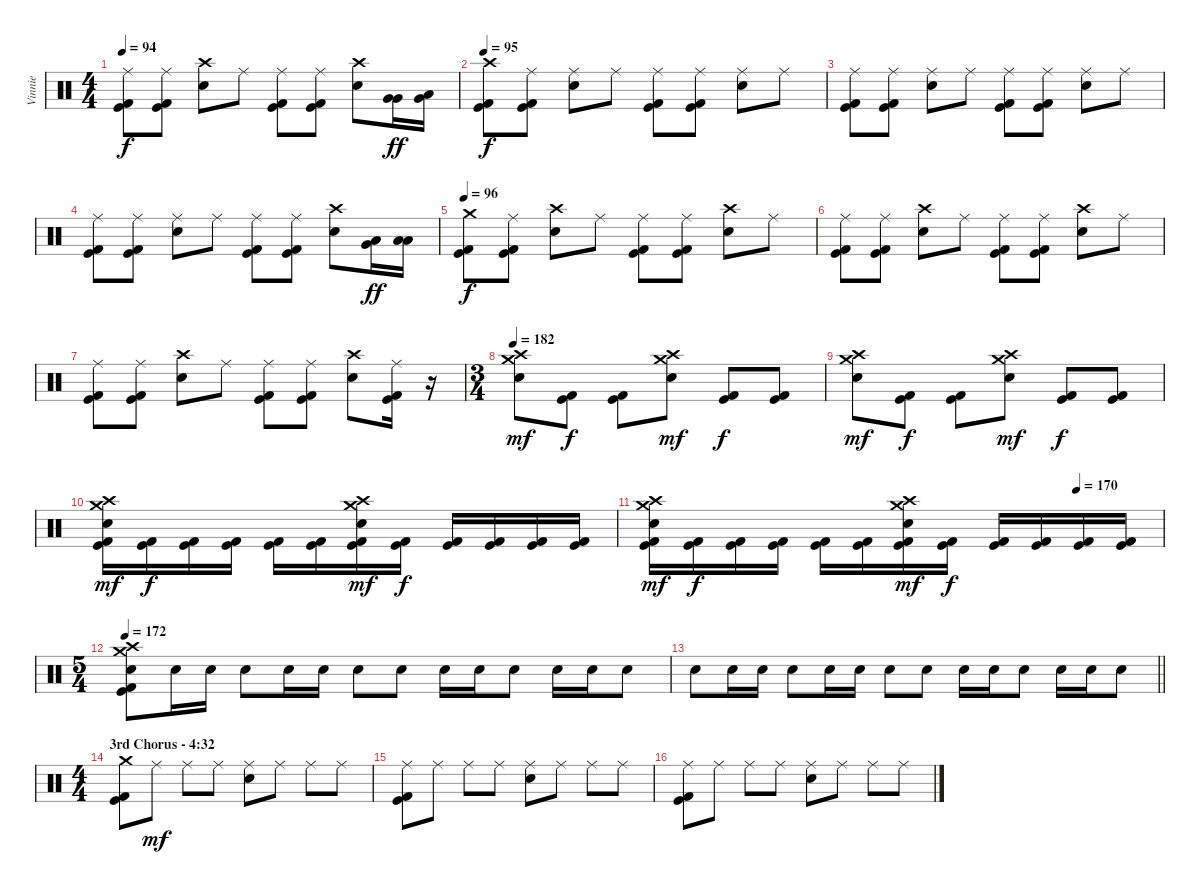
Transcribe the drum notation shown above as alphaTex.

\track ("Vinnie" "Vinnie") {instrument percussion}
\staff {score}
\articulation defaults
\ts (4 4)
\tempo 94
\clef neutral
\ks c
("Ride (middle)" "Kick (hit)" "Kick (hit) 2").8{dy f} ("Ride (middle)" "Kick (hit)" "Kick (hit) 2").8 ("Crash high (hit)" "Electric Snare (hit)").8 "Ride (middle)".8 ("Ride (middle)" "Kick (hit)" "Kick (hit) 2").8 ("Ride (middle)" "Kick (hit)" "Kick (hit) 2").8 ("Crash high (hit)" "Electric Snare (hit)").8 ("Very Low Tom (hit)" "Very Low Tom (hit)").16{dy ff} ("Low Tom (hit)" "Very Low Tom (hit)").16 |
\tempo 95
("Crash high (hit)" "Kick (hit)" "Kick (hit) 2").8{dy f} ("Ride (middle)" "Kick (hit)" "Kick (hit) 2").8 ("Ride (middle)" "Electric Snare (hit)").8 "Ride (middle)".8 ("Ride (middle)" "Kick (hit)" "Kick (hit) 2").8 ("Ride (middle)" "Kick (hit)" "Kick (hit) 2").8 ("Ride (middle)" "Electric Snare (hit)").8 "Ride (middle)".8 |
("Ride (middle)" "Kick (hit)" "Kick (hit) 2").8 ("Ride (middle)" "Kick (hit)" "Kick (hit) 2").8 ("Ride (middle)" "Electric Snare (hit)").8 "Ride (middle)".8 ("Ride (middle)" "Kick (hit)" "Kick (hit) 2").8 ("Ride (middle)" "Kick (hit)" "Kick (hit) 2").8 ("Ride (middle)" "Electric Snare (hit)").8 "Ride (middle)".8 |
("Ride (middle)" "Kick (hit)" "Kick (hit) 2").8 ("Ride (middle)" "Kick (hit)" "Kick (hit) 2").8 ("Ride (middle)" "Electric Snare (hit)").8 "Ride (middle)".8 ("Ride (middle)" "Kick (hit)" "Kick (hit) 2").8 ("Ride (middle)" "Kick (hit)" "Kick (hit) 2").8 ("Crash high (hit)" "Electric Snare (hit)").8 ("Low Tom (hit)" "Very Low Tom (hit)").16{dy ff} ("Low Tom (hit)" "Low Tom (hit)").16 |
\tempo 96
("Crash medium (hit)" "Kick (hit)" "Kick (hit) 2").8{dy f} ("Ride (middle)" "Kick (hit)" "Kick (hit) 2").8 ("Crash high (hit)" "Electric Snare (hit)").8 "Ride (middle)".8 ("Ride (middle)" "Kick (hit)" "Kick (hit) 2").8 ("Ride (middle)" "Kick (hit)" "Kick (hit) 2").8 ("Crash high (hit)" "Electric Snare (hit)").8 "Ride (middle)".8 |
("Ride (middle)" "Kick (hit)" "Kick (hit) 2").8 ("Ride (middle)" "Kick (hit)" "Kick (hit) 2").8 ("Crash high (hit)" "Electric Snare (hit)").8 "Ride (middle)".8 ("Ride (middle)" "Kick (hit)" "Kick (hit) 2").8 ("Ride (middle)" "Kick (hit)" "Kick (hit) 2").8 ("Crash high (hit)" "Electric Snare (hit)").8 "Ride (middle)".8 |
("Ride (middle)" "Kick (hit)" "Kick (hit) 2").8 ("Ride (middle)" "Kick (hit)" "Kick (hit) 2").8 ("Crash high (hit)" "Electric Snare (hit)").8 "Ride (middle)".8 ("Ride (middle)" "Kick (hit)" "Kick (hit) 2").8 ("Ride (middle)" "Kick (hit)" "Kick (hit) 2").8 ("Crash high (hit)" "Electric Snare (hit)").8 ("Ride (middle)" "Kick (hit)" "Kick (hit) 2").16 r.16 |
\ts (3 4)
\tempo 182
("Crash high (hit)" "Crash medium (hit)" "Electric Snare (hit)").8{dy mf} ("Kick (hit)" "Kick (hit) 2").8{dy f} ("Kick (hit)" "Kick (hit) 2").8 ("Crash high (hit)" "Crash medium (hit)" "Electric Snare (hit)").8{dy mf} ("Kick (hit)" "Kick (hit) 2").8{dy f} ("Kick (hit)" "Kick (hit) 2").8 |
("Crash high (hit)" "Crash medium (hit)" "Electric Snare (hit)").8{dy mf} ("Kick (hit)" "Kick (hit) 2").8{dy f} ("Kick (hit)" "Kick (hit) 2").8 ("Crash high (hit)" "Crash medium (hit)" "Electric Snare (hit)").8{dy mf} ("Kick (hit)" "Kick (hit) 2").8{dy f} ("Kick (hit)" "Kick (hit) 2").8 |
("Crash high (hit)" "Crash medium (hit)" "Electric Snare (hit)" "Kick (hit)" "Kick (hit) 2").16{dy mf} ("Kick (hit)" "Kick (hit) 2").16{dy f} ("Kick (hit)" "Kick (hit) 2").16 ("Kick (hit)" "Kick (hit) 2").16 ("Kick (hit)" "Kick (hit) 2").16 ("Kick (hit)" "Kick (hit) 2").16 ("Crash high (hit)" "Crash medium (hit)" "Electric Snare (hit)" "Kick (hit)" "Kick (hit) 2").16{dy mf} ("Kick (hit)" "Kick (hit) 2").16{dy f} ("Kick (hit)" "Kick (hit) 2").16 ("Kick (hit)" "Kick (hit) 2").16 ("Kick (hit)" "Kick (hit) 2").16 ("Kick (hit)" "Kick (hit) 2").16 |
\tempo (170 0.8333333333333334)
("Crash high (hit)" "Crash medium (hit)" "Electric Snare (hit)" "Kick (hit)" "Kick (hit) 2").16{dy mf} ("Kick (hit)" "Kick (hit) 2").16{dy f} ("Kick (hit)" "Kick (hit) 2").16 ("Kick (hit)" "Kick (hit) 2").16 ("Kick (hit)" "Kick (hit) 2").16 ("Kick (hit)" "Kick (hit) 2").16 ("Crash high (hit)" "Crash medium (hit)" "Electric Snare (hit)" "Kick (hit)" "Kick (hit) 2").16{dy mf} ("Kick (hit)" "Kick (hit) 2").16{dy f} ("Kick (hit)" "Kick (hit) 2").16 ("Kick (hit)" "Kick (hit) 2").16 ("Kick (hit)" "Kick (hit) 2").16 ("Kick (hit)" "Kick (hit) 2").16 |
\ts (5 4)
\tempo 172
("Crash medium (hit)" "Crash high (hit)" "Electric Snare (hit)" "Kick (hit)" "Kick (hit) 2").8{bd 60} "Electric Snare (hit)".16 "Electric Snare (hit)".16 "Electric Snare (hit)".8 "Electric Snare (hit)".16 "Electric Snare (hit)".16 "Electric Snare (hit)".8 "Electric Snare (hit)".8 "Electric Snare (hit)".16 "Electric Snare (hit)".16 "Electric Snare (hit)".8 "Electric Snare (hit)".16 "Electric Snare (hit)".16 "Electric Snare (hit)".8 |
\barLineRight lightlight "Electric Snare (hit)".8 "Electric Snare (hit)".16 "Electric Snare (hit)".16 "Electric Snare (hit)".8 "Electric Snare (hit)".16 "Electric Snare (hit)".16 "Electric Snare (hit)".8 "Electric Snare (hit)".8 "Electric Snare (hit)".16 "Electric Snare (hit)".16 "Electric Snare (hit)".8 "Electric Snare (hit)".16 "Electric Snare (hit)".16 "Electric Snare (hit)".8
|
\ts (4 4)
\section ("" "3rd Chorus - 4:32")
("Crash medium (hit)" "Kick (hit)" "Kick (hit) 2").8 "Ride (middle)".8{dy mf} "Ride (middle)".8 "Ride (middle)".8 ("Ride (middle)" "Electric Snare (hit)").8 "Ride (middle)".8 "Ride (middle)".8 "Ride (middle)".8 |
("Ride (middle)" "Kick (hit)" "Kick (hit) 2").8 "Ride (middle)".8 "Ride (middle)".8 "Ride (middle)".8 ("Ride (middle)" "Electric Snare (hit)").8 "Ride (middle)".8 "Ride (middle)".8 "Ride (middle)".8 |
("Ride (middle)" "Kick (hit)" "Kick (hit) 2").8 "Ride (middle)".8 "Ride (middle)".8 "Ride (middle)".8 ("Ride (middle)" "Electric Snare (hit)").8 "Ride (middle)".8 "Ride (middle)".8 "Ride (middle)".8
